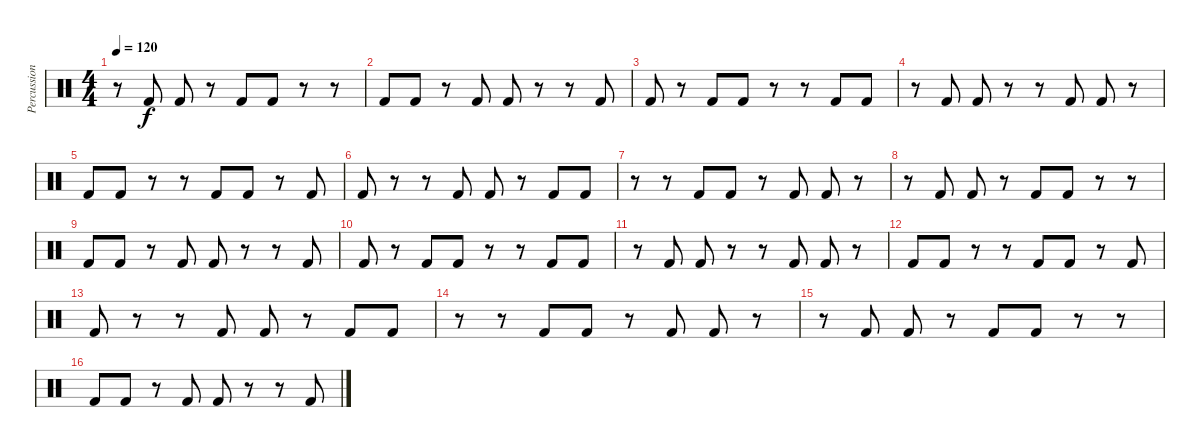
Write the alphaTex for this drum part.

\track ("Percussion" "Percussion") {instrument percussion}
\staff {score}
\articulation defaults
\ts (4 4)
\tempo 120
\clef neutral
\ks c
r.8{dy f} "Kick (hit) 2".8 "Kick (hit) 2".8 r.8 "Kick (hit) 2".8 "Kick (hit) 2".8 r.8 r.8 |
"Kick (hit) 2".8 "Kick (hit) 2".8 r.8 "Kick (hit) 2".8 "Kick (hit) 2".8 r.8 r.8 "Kick (hit) 2".8 |
"Kick (hit) 2".8 r.8 "Kick (hit) 2".8 "Kick (hit) 2".8 r.8 r.8 "Kick (hit) 2".8 "Kick (hit) 2".8 |
r.8 "Kick (hit) 2".8 "Kick (hit) 2".8 r.8 r.8 "Kick (hit) 2".8 "Kick (hit) 2".8 r.8 |
"Kick (hit) 2".8 "Kick (hit) 2".8 r.8 r.8 "Kick (hit) 2".8 "Kick (hit) 2".8 r.8 "Kick (hit) 2".8 |
"Kick (hit) 2".8 r.8 r.8 "Kick (hit) 2".8 "Kick (hit) 2".8 r.8 "Kick (hit) 2".8 "Kick (hit) 2".8 |
r.8 r.8 "Kick (hit) 2".8 "Kick (hit) 2".8 r.8 "Kick (hit) 2".8 "Kick (hit) 2".8 r.8 |
r.8 "Kick (hit) 2".8 "Kick (hit) 2".8 r.8 "Kick (hit) 2".8 "Kick (hit) 2".8 r.8 r.8 |
"Kick (hit) 2".8 "Kick (hit) 2".8 r.8 "Kick (hit) 2".8 "Kick (hit) 2".8 r.8 r.8 "Kick (hit) 2".8 |
"Kick (hit) 2".8 r.8 "Kick (hit) 2".8 "Kick (hit) 2".8 r.8 r.8 "Kick (hit) 2".8 "Kick (hit) 2".8 |
r.8 "Kick (hit) 2".8 "Kick (hit) 2".8 r.8 r.8 "Kick (hit) 2".8 "Kick (hit) 2".8 r.8 |
"Kick (hit) 2".8 "Kick (hit) 2".8 r.8 r.8 "Kick (hit) 2".8 "Kick (hit) 2".8 r.8 "Kick (hit) 2".8 |
"Kick (hit) 2".8 r.8 r.8 "Kick (hit) 2".8 "Kick (hit) 2".8 r.8 "Kick (hit) 2".8 "Kick (hit) 2".8 |
r.8 r.8 "Kick (hit) 2".8 "Kick (hit) 2".8 r.8 "Kick (hit) 2".8 "Kick (hit) 2".8 r.8 |
r.8 "Kick (hit) 2".8 "Kick (hit) 2".8 r.8 "Kick (hit) 2".8 "Kick (hit) 2".8 r.8 r.8 |
"Kick (hit) 2".8 "Kick (hit) 2".8 r.8 "Kick (hit) 2".8 "Kick (hit) 2".8 r.8 r.8 "Kick (hit) 2".8
